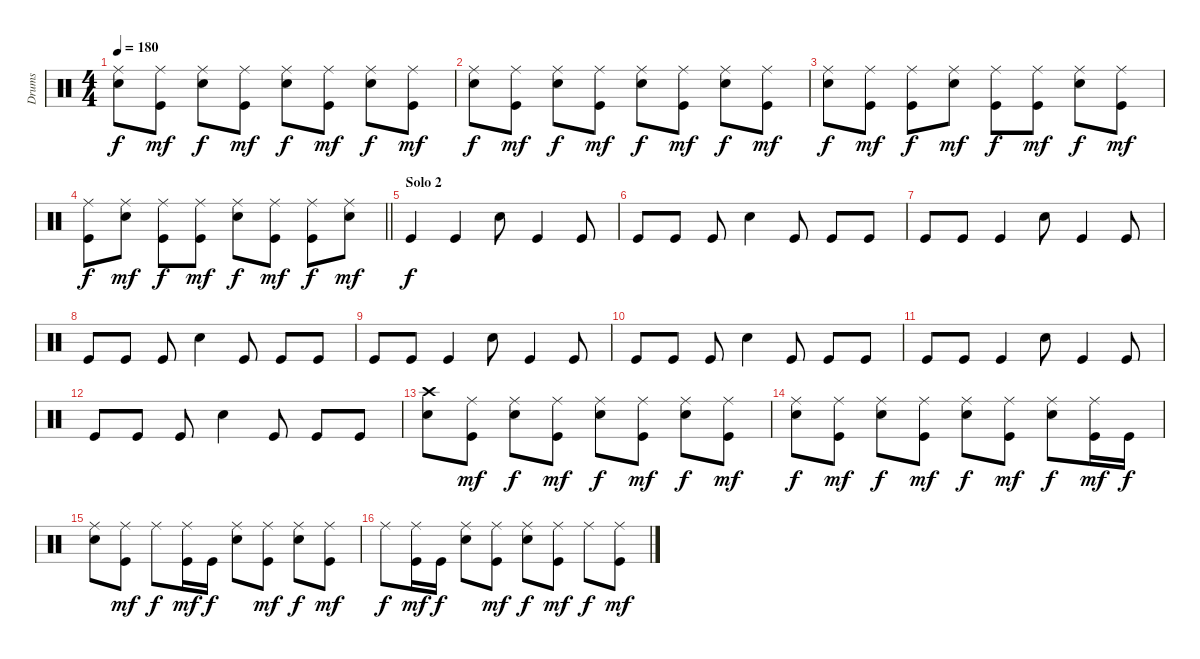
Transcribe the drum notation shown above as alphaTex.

\track ("Drums" "Drums") {instrument percussion}
\staff {score}
\articulation defaults
\ts (4 4)
\tempo 180
\clef neutral
\ks c
("Ride (middle)" "Snare (hit) 2").8{dy f} ("Ride (middle)" "Kick (hit)").8{dy mf} ("Ride (middle)" "Snare (hit) 2").8{dy f} ("Ride (middle)" "Kick (hit)").8{dy mf} ("Ride (middle)" "Snare (hit) 2").8{dy f} ("Ride (middle)" "Kick (hit)").8{dy mf} ("Ride (middle)" "Snare (hit) 2").8{dy f} ("Ride (middle)" "Kick (hit)").8{dy mf} |
("Ride (middle)" "Snare (hit) 2").8{dy f} ("Ride (middle)" "Kick (hit)").8{dy mf} ("Ride (middle)" "Snare (hit) 2").8{dy f} ("Ride (middle)" "Kick (hit)").8{dy mf} ("Ride (middle)" "Snare (hit) 2").8{dy f} ("Ride (middle)" "Kick (hit)").8{dy mf} ("Ride (middle)" "Snare (hit) 2").8{dy f} ("Ride (middle)" "Kick (hit)").8{dy mf} |
("Ride (middle)" "Snare (hit) 2").8{dy f} ("Ride (middle)" "Kick (hit)").8{dy mf} ("Ride (middle)" "Kick (hit)").8{dy f} ("Ride (middle)" "Snare (hit) 2").8{dy mf} ("Ride (middle)" "Kick (hit)").8{dy f} ("Ride (middle)" "Kick (hit)").8{dy mf} ("Ride (middle)" "Snare (hit) 2").8{dy f} ("Ride (middle)" "Kick (hit)").8{dy mf} |
\barLineRight lightlight
("Ride (middle)" "Kick (hit)").8{dy f} ("Ride (middle)" "Snare (hit) 2").8{dy mf} ("Ride (middle)" "Kick (hit)").8{dy f} ("Ride (middle)" "Kick (hit)").8{dy mf} ("Ride (middle)" "Snare (hit) 2").8{dy f} ("Ride (middle)" "Kick (hit)").8{dy mf} ("Ride (middle)" "Kick (hit)").8{dy f} ("Ride (middle)" "Snare (hit) 2").8{dy mf} |
\section ("" "Solo 2")
"Kick (hit)".4{dy f} "Kick (hit)".4 "Snare (hit) 2".8 "Kick (hit)".4 "Kick (hit)".8 |
"Kick (hit)".8 "Kick (hit)".8 "Kick (hit)".8 "Snare (hit) 2".4 "Kick (hit)".8 "Kick (hit)".8 "Kick (hit)".8 |
"Kick (hit)".8 "Kick (hit)".8 "Kick (hit)".4 "Snare (hit) 2".8 "Kick (hit)".4 "Kick (hit)".8 |
"Kick (hit)".8 "Kick (hit)".8 "Kick (hit)".8 "Snare (hit) 2".4 "Kick (hit)".8 "Kick (hit)".8 "Kick (hit)".8 |
"Kick (hit)".8 "Kick (hit)".8 "Kick (hit)".4 "Snare (hit) 2".8 "Kick (hit)".4 "Kick (hit)".8 |
"Kick (hit)".8 "Kick (hit)".8 "Kick (hit)".8 "Snare (hit) 2".4 "Kick (hit)".8 "Kick (hit)".8 "Kick (hit)".8 |
"Kick (hit)".8 "Kick (hit)".8 "Kick (hit)".4 "Snare (hit) 2".8 "Kick (hit)".4 "Kick (hit)".8 |
"Kick (hit)".8 "Kick (hit)".8 "Kick (hit)".8 "Snare (hit) 2".4 "Kick (hit)".8 "Kick (hit)".8 "Kick (hit)".8 |
("Crash high (hit)" "Snare (hit) 2").8 ("Ride (middle)" "Kick (hit)").8{dy mf} ("Ride (middle)" "Snare (hit) 2").8{dy f} ("Ride (middle)" "Kick (hit)").8{dy mf} ("Ride (middle)" "Snare (hit) 2").8{dy f} ("Ride (middle)" "Kick (hit)").8{dy mf} ("Ride (middle)" "Snare (hit) 2").8{dy f} ("Ride (middle)" "Kick (hit)").8{dy mf} |
("Ride (middle)" "Snare (hit) 2").8{dy f} ("Ride (middle)" "Kick (hit)").8{dy mf} ("Ride (middle)" "Snare (hit) 2").8{dy f} ("Ride (middle)" "Kick (hit)").8{dy mf} ("Ride (middle)" "Snare (hit) 2").8{dy f} ("Ride (middle)" "Kick (hit)").8{dy mf} ("Ride (middle)" "Snare (hit) 2").8{dy f} ("Ride (middle)" "Kick (hit)").16{dy mf} "Kick (hit)".16{dy f} |
("Ride (middle)" "Snare (hit) 2").8 ("Ride (middle)" "Kick (hit)").8{dy mf} "Ride (middle)".8{dy f} ("Ride (middle)" "Kick (hit)").16{dy mf} "Kick (hit)".16{dy f} ("Ride (middle)" "Snare (hit) 2").8 ("Ride (middle)" "Kick (hit)").8{dy mf} ("Ride (middle)" "Snare (hit) 2").8{dy f} ("Ride (middle)" "Kick (hit)").8{dy mf} |
"Ride (middle)".8{dy f} ("Ride (middle)" "Kick (hit)").16{dy mf} "Kick (hit)".16{dy f} ("Snare (hit) 2" "Ride (middle)").8 ("Ride (middle)" "Kick (hit)").8{dy mf} ("Snare (hit) 2" "Ride (middle)").8{dy f} ("Ride (middle)" "Kick (hit)").8{dy mf} "Ride (middle)".8{dy f} ("Ride (middle)" "Kick (hit)").8{dy mf}
